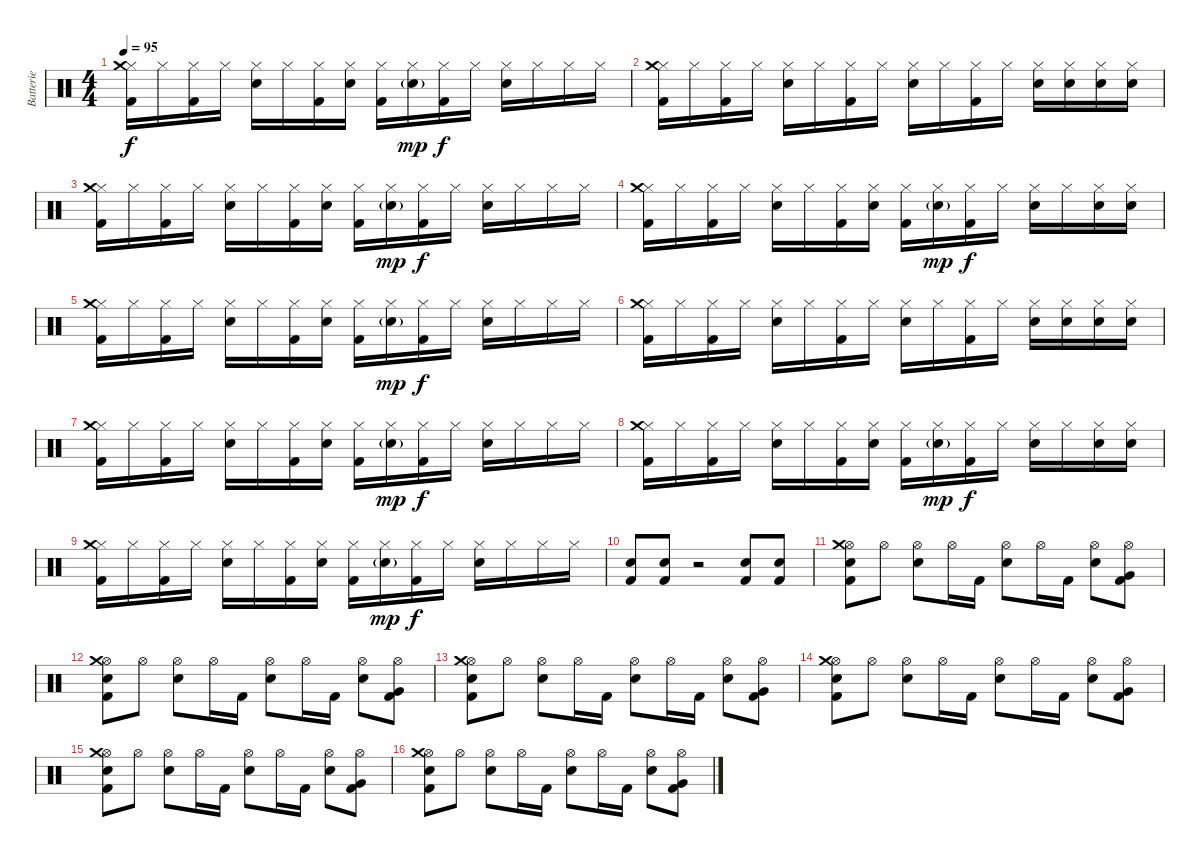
\track ("Batterie" "Batterie") {instrument percussion}
\staff {score}
\articulation defaults
\ts (4 4)
\tempo 95
\clef neutral
\ks c
("Hi-Hat (closed)" "Crash medium (hit)" "Kick (hit) 2").16{dy f} "Hi-Hat (closed)".16 ("Hi-Hat (closed)" "Kick (hit) 2").16 "Hi-Hat (closed)".16 ("Hi-Hat (closed)" "Electric Snare (hit)").16 "Hi-Hat (closed)".16 ("Hi-Hat (closed)" "Kick (hit) 2").16 ("Hi-Hat (closed)" "Electric Snare (hit)").16 ("Hi-Hat (closed)" "Kick (hit) 2").16 ("Hi-Hat (closed)" "Electric Snare (hit)"{g}).16{dy mp} ("Hi-Hat (closed)" "Kick (hit) 2").16{dy f} "Hi-Hat (closed)".16 ("Hi-Hat (closed)" "Electric Snare (hit)").16 "Hi-Hat (closed)".16 "Hi-Hat (closed)".16 "Hi-Hat (closed)".16 |
("Hi-Hat (closed)" "Crash medium (hit)" "Kick (hit) 2").16 "Hi-Hat (closed)".16 ("Hi-Hat (closed)" "Kick (hit) 2").16 "Hi-Hat (closed)".16 ("Hi-Hat (closed)" "Electric Snare (hit)").16 "Hi-Hat (closed)".16 ("Hi-Hat (closed)" "Kick (hit) 2").16 "Hi-Hat (closed)".16 ("Hi-Hat (closed)" "Electric Snare (hit)").16 "Hi-Hat (closed)".16 ("Hi-Hat (closed)" "Kick (hit) 2").16 "Hi-Hat (closed)".16 ("Hi-Hat (closed)" "Electric Snare (hit)").16 ("Hi-Hat (closed)" "Electric Snare (hit)").16 ("Hi-Hat (closed)" "Electric Snare (hit)").16 ("Hi-Hat (closed)" "Electric Snare (hit)").16 |
("Hi-Hat (closed)" "Crash medium (hit)" "Kick (hit) 2").16 "Hi-Hat (closed)".16 ("Hi-Hat (closed)" "Kick (hit) 2").16 "Hi-Hat (closed)".16 ("Hi-Hat (closed)" "Electric Snare (hit)").16 "Hi-Hat (closed)".16 ("Hi-Hat (closed)" "Kick (hit) 2").16 ("Hi-Hat (closed)" "Electric Snare (hit)").16 ("Hi-Hat (closed)" "Kick (hit) 2").16 ("Hi-Hat (closed)" "Electric Snare (hit)"{g}).16{dy mp} ("Hi-Hat (closed)" "Kick (hit) 2").16{dy f} "Hi-Hat (closed)".16 ("Hi-Hat (closed)" "Electric Snare (hit)").16 "Hi-Hat (closed)".16 "Hi-Hat (closed)".16 "Hi-Hat (closed)".16 |
("Hi-Hat (closed)" "Crash medium (hit)" "Kick (hit) 2").16 "Hi-Hat (closed)".16 ("Hi-Hat (closed)" "Kick (hit) 2").16 "Hi-Hat (closed)".16 ("Hi-Hat (closed)" "Electric Snare (hit)").16 "Hi-Hat (closed)".16 ("Hi-Hat (closed)" "Kick (hit) 2").16 ("Hi-Hat (closed)" "Electric Snare (hit)").16 ("Hi-Hat (closed)" "Kick (hit) 2").16 ("Hi-Hat (closed)" "Electric Snare (hit)"{g}).16{dy mp} ("Hi-Hat (closed)" "Kick (hit) 2").16{dy f} "Hi-Hat (closed)".16 ("Hi-Hat (closed)" "Electric Snare (hit)").16 "Hi-Hat (closed)".16 ("Hi-Hat (closed)" "Electric Snare (hit)").16 ("Hi-Hat (closed)" "Electric Snare (hit)").16 |
("Hi-Hat (closed)" "Crash medium (hit)" "Kick (hit) 2").16 "Hi-Hat (closed)".16 ("Hi-Hat (closed)" "Kick (hit) 2").16 "Hi-Hat (closed)".16 ("Hi-Hat (closed)" "Electric Snare (hit)").16 "Hi-Hat (closed)".16 ("Hi-Hat (closed)" "Kick (hit) 2").16 ("Hi-Hat (closed)" "Electric Snare (hit)").16 ("Hi-Hat (closed)" "Kick (hit) 2").16 ("Hi-Hat (closed)" "Electric Snare (hit)"{g}).16{dy mp} ("Hi-Hat (closed)" "Kick (hit) 2").16{dy f} "Hi-Hat (closed)".16 ("Hi-Hat (closed)" "Electric Snare (hit)").16 "Hi-Hat (closed)".16 "Hi-Hat (closed)".16 "Hi-Hat (closed)".16 |
("Hi-Hat (closed)" "Crash medium (hit)" "Kick (hit) 2").16 "Hi-Hat (closed)".16 ("Hi-Hat (closed)" "Kick (hit) 2").16 "Hi-Hat (closed)".16 ("Hi-Hat (closed)" "Electric Snare (hit)").16 "Hi-Hat (closed)".16 ("Hi-Hat (closed)" "Kick (hit) 2").16 "Hi-Hat (closed)".16 ("Hi-Hat (closed)" "Electric Snare (hit)").16 "Hi-Hat (closed)".16 ("Hi-Hat (closed)" "Kick (hit) 2").16 "Hi-Hat (closed)".16 ("Hi-Hat (closed)" "Electric Snare (hit)").16 ("Hi-Hat (closed)" "Electric Snare (hit)").16 ("Hi-Hat (closed)" "Electric Snare (hit)").16 ("Hi-Hat (closed)" "Electric Snare (hit)").16 |
("Hi-Hat (closed)" "Crash medium (hit)" "Kick (hit) 2").16 "Hi-Hat (closed)".16 ("Hi-Hat (closed)" "Kick (hit) 2").16 "Hi-Hat (closed)".16 ("Hi-Hat (closed)" "Electric Snare (hit)").16 "Hi-Hat (closed)".16 ("Hi-Hat (closed)" "Kick (hit) 2").16 ("Hi-Hat (closed)" "Electric Snare (hit)").16 ("Hi-Hat (closed)" "Kick (hit) 2").16 ("Hi-Hat (closed)" "Electric Snare (hit)"{g}).16{dy mp} ("Hi-Hat (closed)" "Kick (hit) 2").16{dy f} "Hi-Hat (closed)".16 ("Hi-Hat (closed)" "Electric Snare (hit)").16 "Hi-Hat (closed)".16 "Hi-Hat (closed)".16 "Hi-Hat (closed)".16 |
("Hi-Hat (closed)" "Crash medium (hit)" "Kick (hit) 2").16 "Hi-Hat (closed)".16 ("Hi-Hat (closed)" "Kick (hit) 2").16 "Hi-Hat (closed)".16 ("Hi-Hat (closed)" "Electric Snare (hit)").16 "Hi-Hat (closed)".16 ("Hi-Hat (closed)" "Kick (hit) 2").16 ("Hi-Hat (closed)" "Electric Snare (hit)").16 ("Hi-Hat (closed)" "Kick (hit) 2").16 ("Hi-Hat (closed)" "Electric Snare (hit)"{g}).16{dy mp} ("Hi-Hat (closed)" "Kick (hit) 2").16{dy f} "Hi-Hat (closed)".16 ("Hi-Hat (closed)" "Electric Snare (hit)").16 "Hi-Hat (closed)".16 ("Hi-Hat (closed)" "Electric Snare (hit)").16 ("Hi-Hat (closed)" "Electric Snare (hit)").16 |
("Hi-Hat (closed)" "Crash medium (hit)" "Kick (hit) 2").16 "Hi-Hat (closed)".16 ("Hi-Hat (closed)" "Kick (hit) 2").16 "Hi-Hat (closed)".16 ("Hi-Hat (closed)" "Electric Snare (hit)").16 "Hi-Hat (closed)".16 ("Hi-Hat (closed)" "Kick (hit) 2").16 ("Hi-Hat (closed)" "Electric Snare (hit)").16 ("Hi-Hat (closed)" "Kick (hit) 2").16 ("Hi-Hat (closed)" "Electric Snare (hit)"{g}).16{dy mp} ("Hi-Hat (closed)" "Kick (hit) 2").16{dy f} "Hi-Hat (closed)".16 ("Hi-Hat (closed)" "Electric Snare (hit)").16 "Hi-Hat (closed)".16 "Hi-Hat (closed)".16 "Hi-Hat (closed)".16 |
("Electric Snare (hit)" "Kick (hit) 2").8 ("Electric Snare (hit)" "Kick (hit) 2").8 r.2 ("Electric Snare (hit)" "Kick (hit) 2").8 ("Electric Snare (hit)" "Kick (hit) 2").8 |
("Hi-Hat (open)" "Crash medium (hit)" "Electric Snare (hit)" "Kick (hit) 2").8 "Hi-Hat (open)".8 ("Hi-Hat (open)" "Electric Snare (hit)").8 "Hi-Hat (open)".16 "Kick (hit) 2".16 ("Hi-Hat (open)" "Electric Snare (hit)").8 "Hi-Hat (open)".16 "Kick (hit) 2".16 ("Hi-Hat (open)" "Electric Snare (hit)").8 ("Hi-Hat (open)" "Very Low Tom (hit)" "Kick (hit) 2").8 |
("Hi-Hat (open)" "Crash medium (hit)" "Electric Snare (hit)" "Kick (hit) 2").8 "Hi-Hat (open)".8 ("Hi-Hat (open)" "Electric Snare (hit)").8 "Hi-Hat (open)".16 "Kick (hit) 2".16 ("Hi-Hat (open)" "Electric Snare (hit)").8 "Hi-Hat (open)".16 "Kick (hit) 2".16 ("Hi-Hat (open)" "Electric Snare (hit)").8 ("Hi-Hat (open)" "Very Low Tom (hit)" "Kick (hit) 2").8 |
("Hi-Hat (open)" "Crash medium (hit)" "Electric Snare (hit)" "Kick (hit) 2").8 "Hi-Hat (open)".8 ("Hi-Hat (open)" "Electric Snare (hit)").8 "Hi-Hat (open)".16 "Kick (hit) 2".16 ("Hi-Hat (open)" "Electric Snare (hit)").8 "Hi-Hat (open)".16 "Kick (hit) 2".16 ("Hi-Hat (open)" "Electric Snare (hit)").8 ("Hi-Hat (open)" "Very Low Tom (hit)" "Kick (hit) 2").8 |
("Hi-Hat (open)" "Crash medium (hit)" "Electric Snare (hit)" "Kick (hit) 2").8 "Hi-Hat (open)".8 ("Hi-Hat (open)" "Electric Snare (hit)").8 "Hi-Hat (open)".16 "Kick (hit) 2".16 ("Hi-Hat (open)" "Electric Snare (hit)").8 "Hi-Hat (open)".16 "Kick (hit) 2".16 ("Hi-Hat (open)" "Electric Snare (hit)").8 ("Hi-Hat (open)" "Very Low Tom (hit)" "Kick (hit) 2").8 |
("Hi-Hat (open)" "Crash medium (hit)" "Electric Snare (hit)" "Kick (hit) 2").8 "Hi-Hat (open)".8 ("Hi-Hat (open)" "Electric Snare (hit)").8 "Hi-Hat (open)".16 "Kick (hit) 2".16 ("Hi-Hat (open)" "Electric Snare (hit)").8 "Hi-Hat (open)".16 "Kick (hit) 2".16 ("Hi-Hat (open)" "Electric Snare (hit)").8 ("Hi-Hat (open)" "Very Low Tom (hit)" "Kick (hit) 2").8 |
("Hi-Hat (open)" "Crash medium (hit)" "Electric Snare (hit)" "Kick (hit) 2").8 "Hi-Hat (open)".8 ("Hi-Hat (open)" "Electric Snare (hit)").8 "Hi-Hat (open)".16 "Kick (hit) 2".16 ("Hi-Hat (open)" "Electric Snare (hit)").8 "Hi-Hat (open)".16 "Kick (hit) 2".16 ("Hi-Hat (open)" "Electric Snare (hit)").8 ("Hi-Hat (open)" "Very Low Tom (hit)" "Kick (hit) 2").8
